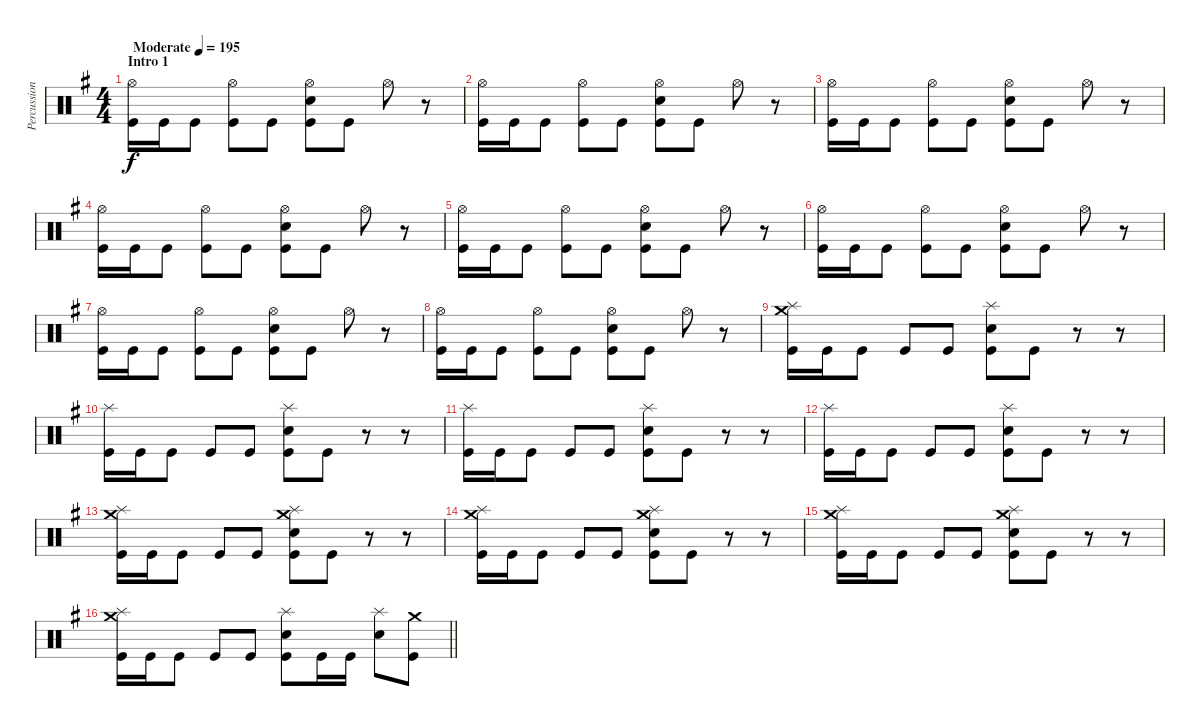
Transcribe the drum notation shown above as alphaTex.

\track ("Percussion" "Percussion") {instrument percussion}
\staff {score}
\articulation defaults
\ts (4 4)
\section ("" "Intro 1")
\tempo (195 "Moderate")
\clef neutral
\ks g
("Hi-Hat (open)" "Kick (hit)").16{dy f} "Kick (hit)".16 "Kick (hit)".8 ("Hi-Hat (open)" "Kick (hit)").8 "Kick (hit)".8 ("Hi-Hat (open)" "Electric Snare (hit)" "Kick (hit)").8 "Kick (hit)".8 "Hi-Hat (open)".8 r.8 |
("Hi-Hat (open)" "Kick (hit)").16 "Kick (hit)".16 "Kick (hit)".8 ("Hi-Hat (open)" "Kick (hit)").8 "Kick (hit)".8 ("Hi-Hat (open)" "Electric Snare (hit)" "Kick (hit)").8 "Kick (hit)".8 "Hi-Hat (open)".8 r.8 |
("Hi-Hat (open)" "Kick (hit)").16 "Kick (hit)".16 "Kick (hit)".8 ("Hi-Hat (open)" "Kick (hit)").8 "Kick (hit)".8 ("Hi-Hat (open)" "Electric Snare (hit)" "Kick (hit)").8 "Kick (hit)".8 "Hi-Hat (open)".8 r.8 |
("Hi-Hat (open)" "Kick (hit)").16 "Kick (hit)".16 "Kick (hit)".8 ("Hi-Hat (open)" "Kick (hit)").8 "Kick (hit)".8 ("Hi-Hat (open)" "Electric Snare (hit)" "Kick (hit)").8 "Kick (hit)".8 "Hi-Hat (open)".8 r.8 |
("Hi-Hat (open)" "Kick (hit)").16 "Kick (hit)".16 "Kick (hit)".8 ("Hi-Hat (open)" "Kick (hit)").8 "Kick (hit)".8 ("Hi-Hat (open)" "Electric Snare (hit)" "Kick (hit)").8 "Kick (hit)".8 "Hi-Hat (open)".8 r.8 |
("Hi-Hat (open)" "Kick (hit)").16 "Kick (hit)".16 "Kick (hit)".8 ("Hi-Hat (open)" "Kick (hit)").8 "Kick (hit)".8 ("Hi-Hat (open)" "Electric Snare (hit)" "Kick (hit)").8 "Kick (hit)".8 "Hi-Hat (open)".8 r.8 |
("Hi-Hat (open)" "Kick (hit)").16 "Kick (hit)".16 "Kick (hit)".8 ("Hi-Hat (open)" "Kick (hit)").8 "Kick (hit)".8 ("Hi-Hat (open)" "Electric Snare (hit)" "Kick (hit)").8 "Kick (hit)".8 "Hi-Hat (open)".8 r.8 |
("Hi-Hat (open)" "Kick (hit)").16 "Kick (hit)".16 "Kick (hit)".8 ("Hi-Hat (open)" "Kick (hit)").8 "Kick (hit)".8 ("Hi-Hat (open)" "Electric Snare (hit)" "Kick (hit)").8 "Kick (hit)".8 "Hi-Hat (open)".8 r.8 |
("Crash medium (hit)" "Splash (hit)" "Kick (hit)").16 "Kick (hit)".16 "Kick (hit)".8 "Kick (hit)".8 "Kick (hit)".8 ("Splash (hit)" "Electric Snare (hit)" "Kick (hit)").8 "Kick (hit)".8 r.8 r.8 |
("Splash (hit)" "Kick (hit)").16 "Kick (hit)".16 "Kick (hit)".8 "Kick (hit)".8 "Kick (hit)".8 ("Splash (hit)" "Electric Snare (hit)" "Kick (hit)").8 "Kick (hit)".8 r.8 r.8 |
("Splash (hit)" "Kick (hit)").16 "Kick (hit)".16 "Kick (hit)".8 "Kick (hit)".8 "Kick (hit)".8 ("Splash (hit)" "Electric Snare (hit)" "Kick (hit)").8 "Kick (hit)".8 r.8 r.8 |
("Splash (hit)" "Kick (hit)").16 "Kick (hit)".16 "Kick (hit)".8 "Kick (hit)".8 "Kick (hit)".8 ("Splash (hit)" "Electric Snare (hit)" "Kick (hit)").8 "Kick (hit)".8 r.8 r.8 |
("Crash medium (hit)" "Splash (hit)" "Kick (hit)").16 "Kick (hit)".16 "Kick (hit)".8 "Kick (hit)".8 "Kick (hit)".8 ("Crash medium (hit)" "Splash (hit)" "Electric Snare (hit)" "Kick (hit)").8 "Kick (hit)".8 r.8 r.8 |
("Crash medium (hit)" "Splash (hit)" "Kick (hit)").16 "Kick (hit)".16 "Kick (hit)".8 "Kick (hit)".8 "Kick (hit)".8 ("Crash medium (hit)" "Splash (hit)" "Electric Snare (hit)" "Kick (hit)").8 "Kick (hit)".8 r.8 r.8 |
("Crash medium (hit)" "Splash (hit)" "Kick (hit)").16 "Kick (hit)".16 "Kick (hit)".8 "Kick (hit)".8 "Kick (hit)".8 ("Crash medium (hit)" "Splash (hit)" "Electric Snare (hit)" "Kick (hit)").8 "Kick (hit)".8 r.8 r.8 |
\barLineRight lightlight
("Crash medium (hit)" "Splash (hit)" "Kick (hit)").16 "Kick (hit)".16 "Kick (hit)".8 "Kick (hit)".8 "Kick (hit)".8 ("Splash (hit)" "Electric Snare (hit)" "Kick (hit)").8 "Kick (hit)".16 "Kick (hit)".16 ("Splash (hit)" "Electric Snare (hit)").8 ("Crash medium (hit)" "Kick (hit)").8
